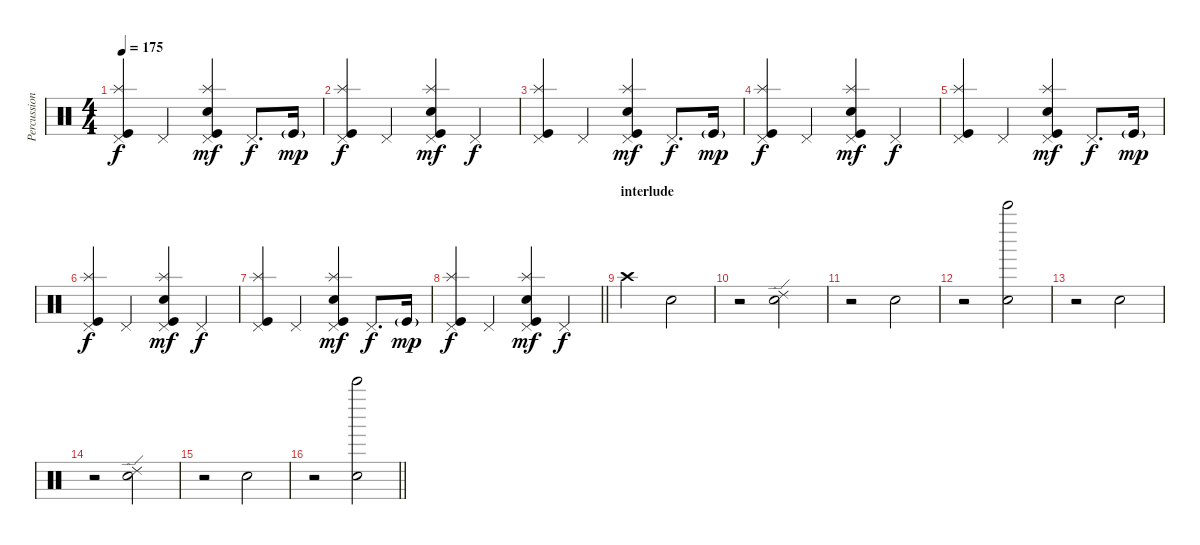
\track ("Percussion" "Percussion") {instrument percussion}
\staff {score}
\articulation defaults
\ts (4 4)
\tempo 175
\clef neutral
\ks c
("Pedal Hi-Hat (hit)" "Splash (hit)" "Kick (hit)").4{dy f} "Pedal Hi-Hat (hit)".4 ("Pedal Hi-Hat (hit)" "Electric Snare (hit)" "Splash (hit)" "Kick (hit)").4{dy mf} "Pedal Hi-Hat (hit)".8{d dy f} "Kick (hit)"{g}.16{dy mp} |
("Pedal Hi-Hat (hit)" "Splash (hit)" "Kick (hit)").4{dy f} "Pedal Hi-Hat (hit)".4 ("Pedal Hi-Hat (hit)" "Electric Snare (hit)" "Splash (hit)" "Kick (hit)").4{dy mf} "Pedal Hi-Hat (hit)".4{dy f} |
("Pedal Hi-Hat (hit)" "Splash (hit)" "Kick (hit)").4 "Pedal Hi-Hat (hit)".4 ("Pedal Hi-Hat (hit)" "Electric Snare (hit)" "Splash (hit)" "Kick (hit)").4{dy mf} "Pedal Hi-Hat (hit)".8{d dy f} "Kick (hit)"{g}.16{dy mp} |
("Pedal Hi-Hat (hit)" "Splash (hit)" "Kick (hit)").4{dy f} "Pedal Hi-Hat (hit)".4 ("Pedal Hi-Hat (hit)" "Electric Snare (hit)" "Splash (hit)" "Kick (hit)").4{dy mf} "Pedal Hi-Hat (hit)".4{dy f} |
("Pedal Hi-Hat (hit)" "Splash (hit)" "Kick (hit)").4 "Pedal Hi-Hat (hit)".4 ("Pedal Hi-Hat (hit)" "Electric Snare (hit)" "Splash (hit)" "Kick (hit)").4{dy mf} "Pedal Hi-Hat (hit)".8{d dy f} "Kick (hit)"{g}.16{dy mp} |
("Pedal Hi-Hat (hit)" "Splash (hit)" "Kick (hit)").4{dy f} "Pedal Hi-Hat (hit)".4 ("Pedal Hi-Hat (hit)" "Electric Snare (hit)" "Splash (hit)" "Kick (hit)").4{dy mf} "Pedal Hi-Hat (hit)".4{dy f} |
("Pedal Hi-Hat (hit)" "Splash (hit)" "Kick (hit)").4 "Pedal Hi-Hat (hit)".4 ("Pedal Hi-Hat (hit)" "Electric Snare (hit)" "Splash (hit)" "Kick (hit)").4{dy mf} "Pedal Hi-Hat (hit)".8{d dy f} "Kick (hit)"{g}.16{dy mp} |
\barLineRight lightlight
("Pedal Hi-Hat (hit)" "Splash (hit)" "Kick (hit)").4{dy f} "Pedal Hi-Hat (hit)".4 ("Pedal Hi-Hat (hit)" "Electric Snare (hit)" "Splash (hit)" "Kick (hit)").4{dy mf} "Pedal Hi-Hat (hit)".4{dy f} |
\section ("" "interlude")
"Crash high (hit)".2 "Hand Clap (hit)".2 |
r.2 ("Ride (edge) 2" "Hand Clap (hit)").2 |
r.2 "Hand Clap (hit)".2 |
r.2 ("Bell Tree (hit)" "Hand Clap (hit)").2 |
r.2 "Hand Clap (hit)".2 |
r.2 ("Ride (edge) 2" "Hand Clap (hit)").2 |
r.2 "Hand Clap (hit)".2 |
\barLineRight lightlight
r.2 ("Bell Tree (hit)" "Hand Clap (hit)").2
